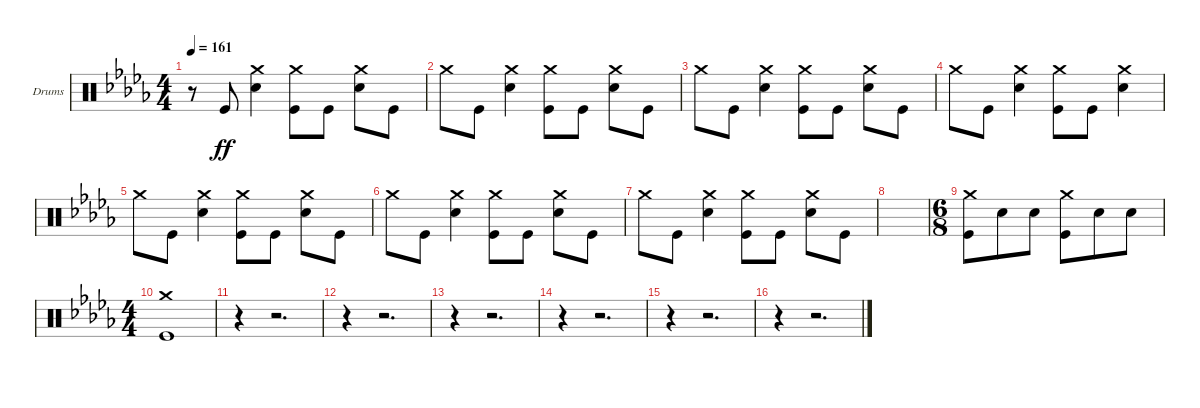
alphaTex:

\bracketExtendMode groupsimilarinstruments
\firstSystemTrackNameOrientation horizontal
\otherSystemsTrackNameOrientation horizontal
\track ("Drumkit" "Drums") {instrument percussion}
\staff {score}
\articulation defaults
\ts (4 4)
\tempo 161
\clef neutral
\ks db
r.8{dy ff} "Kick (hit)".8 ("Snare (hit) 2" "Crash medium (hit)").4 ("Kick (hit)" "Crash medium (hit)").8 "Kick (hit)".8 ("Snare (hit) 2" "Crash medium (hit)").8 "Kick (hit)".8 |
"Crash medium (hit)".8 "Kick (hit)".8 ("Snare (hit) 2" "Crash medium (hit)").4 ("Kick (hit)" "Crash medium (hit)").8 "Kick (hit)".8 ("Snare (hit) 2" "Crash medium (hit)").8 "Kick (hit)".8 |
"Crash medium (hit)".8 "Kick (hit)".8 ("Snare (hit) 2" "Crash medium (hit)").4 ("Kick (hit)" "Crash medium (hit)").8 "Kick (hit)".8 ("Snare (hit) 2" "Crash medium (hit)").8 "Kick (hit)".8 |
"Crash medium (hit)".8 "Kick (hit)".8 ("Snare (hit) 2" "Crash medium (hit)").4 ("Kick (hit)" "Crash medium (hit)").8 "Kick (hit)".8 ("Snare (hit) 2" "Crash medium (hit)").4 |
"Crash medium (hit)".8 "Kick (hit)".8 ("Snare (hit) 2" "Crash medium (hit)").4 ("Kick (hit)" "Crash medium (hit)").8 "Kick (hit)".8 ("Snare (hit) 2" "Crash medium (hit)").8 "Kick (hit)".8 |
"Crash medium (hit)".8 "Kick (hit)".8 ("Snare (hit) 2" "Crash medium (hit)").4 ("Kick (hit)" "Crash medium (hit)").8 "Kick (hit)".8 ("Snare (hit) 2" "Crash medium (hit)").8 "Kick (hit)".8 |
"Crash medium (hit)".8 "Kick (hit)".8 ("Snare (hit) 2" "Crash medium (hit)").4 ("Kick (hit)" "Crash medium (hit)").8 "Kick (hit)".8 ("Snare (hit) 2" "Crash medium (hit)").8 "Kick (hit)".8 |
|
\ts (6 8)
("Kick (hit)" "Crash medium (hit)").8 "Snare (hit) 2".8 "Snare (hit) 2".8 ("Kick (hit)" "Crash medium (hit)").8 "Snare (hit) 2".8 "Snare (hit) 2".8 |
\ts (4 4)
("Kick (hit)" "Crash medium (hit)").1 |
r.4 r.2{d} |
r.4 r.2{d} |
r.4 r.2{d} |
r.4 r.2{d} |
r.4 r.2{d} |
r.4 r.2{d}
